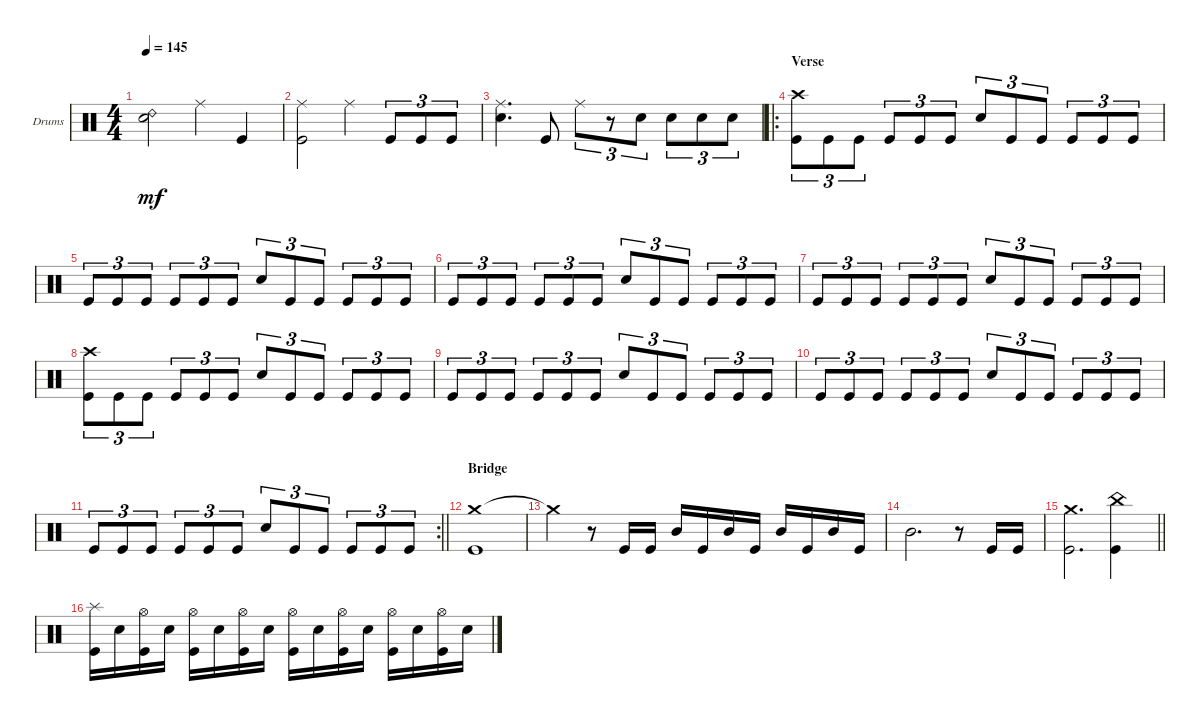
\defaultSystemsLayout 4
\bracketExtendMode groupsimilarinstruments
\firstSystemTrackNameOrientation horizontal
\otherSystemsTrackNameOrientation horizontal
\track ("Drumkit" "Drums") {instrument percussion}
\staff {score}
\articulation defaults
\ts (4 4)
\tempo 145
\clef neutral
\ks c
("Snare (hit) 2" "Ride (bell) 2").2{dy mf} "Ride (middle)".4 "Kick (hit)".4 |
("Kick (hit)" "Ride (middle)").2 "Ride (middle)".4 "Kick (hit)".8{tu (3 2)} "Kick (hit)".8{tu (3 2)} "Kick (hit)".8{tu (3 2)} |
("Snare (hit) 2" "Ride (middle)").4{d} "Kick (hit)".8 "Ride (middle)".8{tu (3 2)} r.8{tu (3 2)} "Snare (hit) 2".8{tu (3 2)} "Snare (hit) 2".8{tu (3 2)} "Snare (hit) 2".8{tu (3 2)} "Snare (hit) 2".8{tu (3 2)} |
\ro
\section ("" "Verse")
("Kick (hit)" "Crash high (hit)").8{tu (3 2)} "Kick (hit)".8{tu (3 2)} "Kick (hit)".8{tu (3 2)} "Kick (hit)".8{tu (3 2)} "Kick (hit)".8{tu (3 2)} "Kick (hit)".8{tu (3 2)} "Snare (hit) 2".8{tu (3 2)} "Kick (hit)".8{tu (3 2)} "Kick (hit)".8{tu (3 2)} "Kick (hit)".8{tu (3 2)} "Kick (hit)".8{tu (3 2)} "Kick (hit)".8{tu (3 2)} |
"Kick (hit)".8{tu (3 2)} "Kick (hit)".8{tu (3 2)} "Kick (hit)".8{tu (3 2)} "Kick (hit)".8{tu (3 2)} "Kick (hit)".8{tu (3 2)} "Kick (hit)".8{tu (3 2)} "Snare (hit) 2".8{tu (3 2)} "Kick (hit)".8{tu (3 2)} "Kick (hit)".8{tu (3 2)} "Kick (hit)".8{tu (3 2)} "Kick (hit)".8{tu (3 2)} "Kick (hit)".8{tu (3 2)} |
"Kick (hit)".8{tu (3 2)} "Kick (hit)".8{tu (3 2)} "Kick (hit)".8{tu (3 2)} "Kick (hit)".8{tu (3 2)} "Kick (hit)".8{tu (3 2)} "Kick (hit)".8{tu (3 2)} "Snare (hit) 2".8{tu (3 2)} "Kick (hit)".8{tu (3 2)} "Kick (hit)".8{tu (3 2)} "Kick (hit)".8{tu (3 2)} "Kick (hit)".8{tu (3 2)} "Kick (hit)".8{tu (3 2)} |
"Kick (hit)".8{tu (3 2)} "Kick (hit)".8{tu (3 2)} "Kick (hit)".8{tu (3 2)} "Kick (hit)".8{tu (3 2)} "Kick (hit)".8{tu (3 2)} "Kick (hit)".8{tu (3 2)} "Snare (hit) 2".8{tu (3 2)} "Kick (hit)".8{tu (3 2)} "Kick (hit)".8{tu (3 2)} "Kick (hit)".8{tu (3 2)} "Kick (hit)".8{tu (3 2)} "Kick (hit)".8{tu (3 2)} |
("Kick (hit)" "Crash high (hit)").8{tu (3 2)} "Kick (hit)".8{tu (3 2)} "Kick (hit)".8{tu (3 2)} "Kick (hit)".8{tu (3 2)} "Kick (hit)".8{tu (3 2)} "Kick (hit)".8{tu (3 2)} "Snare (hit) 2".8{tu (3 2)} "Kick (hit)".8{tu (3 2)} "Kick (hit)".8{tu (3 2)} "Kick (hit)".8{tu (3 2)} "Kick (hit)".8{tu (3 2)} "Kick (hit)".8{tu (3 2)} |
"Kick (hit)".8{tu (3 2)} "Kick (hit)".8{tu (3 2)} "Kick (hit)".8{tu (3 2)} "Kick (hit)".8{tu (3 2)} "Kick (hit)".8{tu (3 2)} "Kick (hit)".8{tu (3 2)} "Snare (hit) 2".8{tu (3 2)} "Kick (hit)".8{tu (3 2)} "Kick (hit)".8{tu (3 2)} "Kick (hit)".8{tu (3 2)} "Kick (hit)".8{tu (3 2)} "Kick (hit)".8{tu (3 2)} |
"Kick (hit)".8{tu (3 2)} "Kick (hit)".8{tu (3 2)} "Kick (hit)".8{tu (3 2)} "Kick (hit)".8{tu (3 2)} "Kick (hit)".8{tu (3 2)} "Kick (hit)".8{tu (3 2)} "Snare (hit) 2".8{tu (3 2)} "Kick (hit)".8{tu (3 2)} "Kick (hit)".8{tu (3 2)} "Kick (hit)".8{tu (3 2)} "Kick (hit)".8{tu (3 2)} "Kick (hit)".8{tu (3 2)} |
\rc 2
\barLineRight lightlight "Kick (hit)".8{tu (3 2)} "Kick (hit)".8{tu (3 2)} "Kick (hit)".8{tu (3 2)} "Kick (hit)".8{tu (3 2)} "Kick (hit)".8{tu (3 2)} "Kick (hit)".8{tu (3 2)} "Snare (hit) 2".8{tu (3 2)} "Kick (hit)".8{tu (3 2)} "Kick (hit)".8{tu (3 2)} "Kick (hit)".8{tu (3 2)} "Kick (hit)".8{tu (3 2)} "Kick (hit)".8{tu (3 2)}
|
\section ("" "Bridge")
("Crash medium (hit)" "Kick (hit)").1 |
"Crash medium (hit)"{t}.4 r.8 "Kick (hit)".16 "Kick (hit)".16 "Mid Tom (hit)".16 "Kick (hit)".16 "Mid Tom (hit)".16 "Kick (hit)".16 "Mid Tom (hit)".16 "Kick (hit)".16 "Mid Tom (hit)".16 "Kick (hit)".16 |
"Mid Tom (hit)".2{d} r.8 "Kick (hit)".16 "Kick (hit)".16 |
\barLineRight lightlight
("Crash medium (hit)" "Kick (hit)").2{d} ("China (hit)" "Kick (hit)").4 |
("Kick (hit)" "Splash (hit)").16 "Snare (hit) 2".16 ("Kick (hit)" "Hi-Hat (open)").16 "Snare (hit) 2".16 ("Kick (hit)" "Hi-Hat (open)").16 "Snare (hit) 2".16 ("Kick (hit)" "Hi-Hat (open)").16 "Snare (hit) 2".16 ("Kick (hit)" "Hi-Hat (open)").16 "Snare (hit) 2".16 ("Kick (hit)" "Hi-Hat (open)").16 "Snare (hit) 2".16 ("Kick (hit)" "Hi-Hat (open)").16 "Snare (hit) 2".16 ("Kick (hit)" "Hi-Hat (open)").16 "Snare (hit) 2".16
